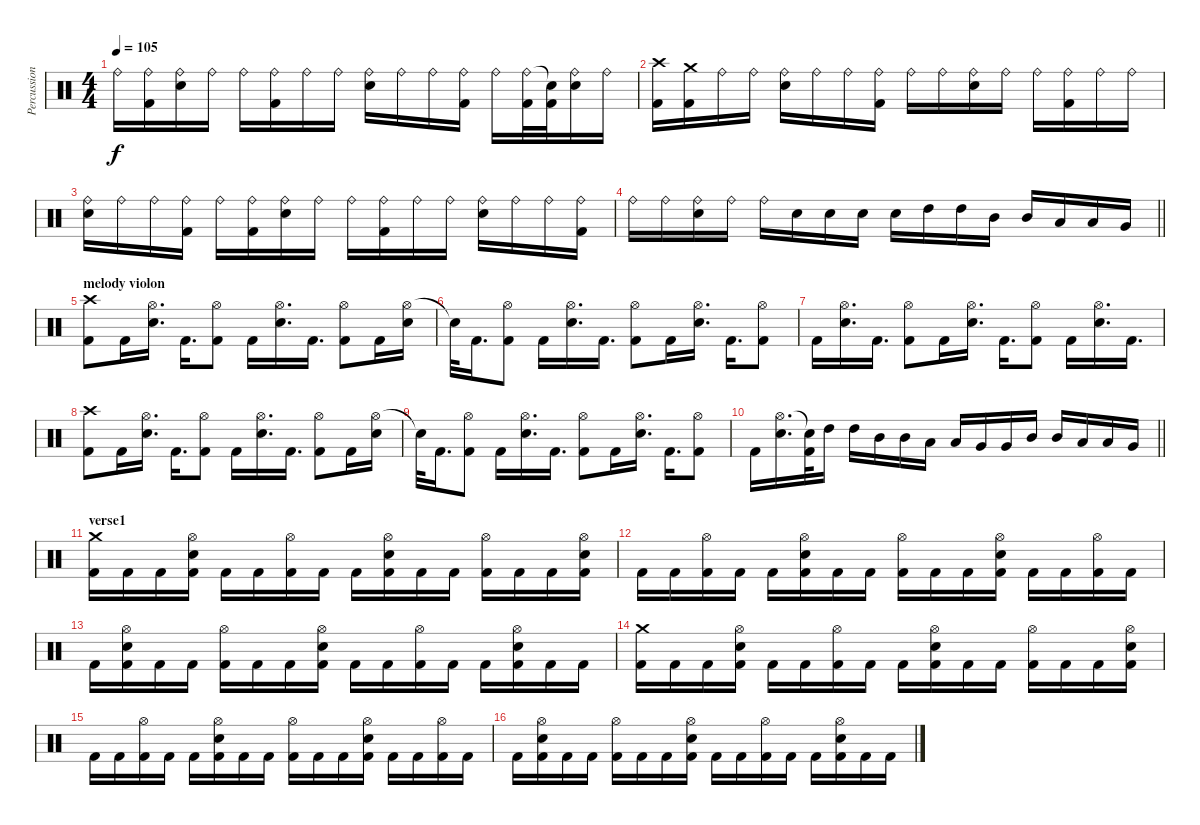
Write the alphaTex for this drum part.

\track ("Percussions" "Percussion") {instrument percussion}
\staff {score}
\articulation defaults
\ts (4 4)
\tempo 105
\clef neutral
\ks c "Ride (bell)".16{dy f}
("Ride (bell)" "Kick (hit) 2").16 ("Ride (bell)" "Snare (hit) 2").16 "Ride (bell)".16 "Ride (bell)".16 ("Ride (bell)" "Kick (hit) 2").16 "Ride (bell)".16 "Ride (bell)".16 ("Ride (bell)" "Snare (hit) 2").16 "Ride (bell)".16 "Ride (bell)".16 ("Ride (bell)" "Kick (hit) 2").16 "Ride (bell)".16 ("Ride (bell)" "Kick (hit) 2").32 ("Snare (hit)"{t} "Kick (hit) 2").32 ("Ride (bell)" "Snare (hit) 2").16 "Ride (bell)".16 |
("Crash high (hit)" "Kick (hit) 2").16 ("Crash medium (hit)" "Kick (hit) 2").16 "Ride (bell)".16 "Ride (bell)".16 ("Ride (bell)" "Snare (hit) 2").16 "Ride (bell)".16 "Ride (bell)".16 ("Ride (bell)" "Kick (hit) 2").16 "Ride (bell)".16 "Ride (bell)".16 ("Ride (bell)" "Snare (hit) 2").16 "Ride (bell)".16 "Ride (bell)".16 ("Ride (bell)" "Kick (hit) 2").16 "Ride (bell)".16 "Ride (bell)".16 |
("Ride (bell)" "Snare (hit) 2").16 "Ride (bell)".16 "Ride (bell)".16 ("Ride (bell)" "Kick (hit) 2").16 "Ride (bell)".16 ("Ride (bell)" "Kick (hit) 2").16 ("Ride (bell)" "Snare (hit) 2").16 "Ride (bell)".16 "Ride (bell)".16 ("Ride (bell)" "Kick (hit) 2").16 "Ride (bell)".16 "Ride (bell)".16 ("Ride (bell)" "Snare (hit) 2").16 "Ride (bell)".16 "Ride (bell)".16 ("Ride (bell)" "Kick (hit) 2").16 |
\barLineRight lightlight "Ride (bell)".16 "Ride (bell)".16
("Ride (bell)" "Snare (hit) 2").16 "Ride (bell)".16 "Ride (bell)".16 "Snare (hit) 2".16 "Snare (hit) 2".16 "Snare (hit) 2".16 "Snare (hit) 2".16 "High Tom (hit)".16 "High Tom (hit)".16 "Mid Tom (hit)".16 "Mid Tom (hit)".16 "Low Tom (hit)".16 "Low Tom (hit)".16 "Very Low Tom (hit)".16 |
\section ("" "melody violon")
("Crash high (hit)" "Kick (hit) 2").8 "Kick (hit) 2".16 ("Hi-Hat (open)" "Snare (hit) 2").16{d} "Kick (hit) 2".16{d} ("Hi-Hat (open)" "Kick (hit) 2").8 "Kick (hit) 2".16 ("Hi-Hat (open)" "Snare (hit) 2").16{d} "Kick (hit) 2".16{d} ("Hi-Hat (open)" "Kick (hit) 2").8 "Kick (hit) 2".16 ("Hi-Hat (open)" "Snare (hit) 2").16 |
"Snare (hit)"{t}.32 "Kick (hit) 2".16{d} ("Hi-Hat (open)" "Kick (hit) 2").8 "Kick (hit) 2".16 ("Hi-Hat (open)" "Snare (hit) 2").16{d} "Kick (hit) 2".16{d} ("Hi-Hat (open)" "Kick (hit) 2").8 "Kick (hit) 2".16 ("Hi-Hat (open)" "Snare (hit) 2").16{d} "Kick (hit) 2".16{d} ("Hi-Hat (open)" "Kick (hit) 2").8 |
"Kick (hit) 2".16 ("Hi-Hat (open)" "Snare (hit) 2").16{d} "Kick (hit) 2".16{d} ("Hi-Hat (open)" "Kick (hit) 2").8 "Kick (hit) 2".16 ("Hi-Hat (open)" "Snare (hit) 2").16{d} "Kick (hit) 2".16{d} ("Hi-Hat (open)" "Kick (hit) 2").8 "Kick (hit) 2".16 ("Hi-Hat (open)" "Snare (hit) 2").16{d} "Kick (hit) 2".16{d} |
("Crash high (hit)" "Kick (hit) 2").8 "Kick (hit) 2".16 ("Hi-Hat (open)" "Snare (hit) 2").16{d} "Kick (hit) 2".16{d} ("Hi-Hat (open)" "Kick (hit) 2").8 "Kick (hit) 2".16 ("Hi-Hat (open)" "Snare (hit) 2").16{d} "Kick (hit) 2".16{d} ("Hi-Hat (open)" "Kick (hit) 2").8 "Kick (hit) 2".16 ("Hi-Hat (open)" "Snare (hit) 2").16 |
"Snare (hit)"{t}.32 "Kick (hit) 2".16{d} ("Hi-Hat (open)" "Kick (hit) 2").8 "Kick (hit) 2".16 ("Hi-Hat (open)" "Snare (hit) 2").16{d} "Kick (hit) 2".16{d} ("Hi-Hat (open)" "Kick (hit) 2").8 "Kick (hit) 2".16 ("Hi-Hat (open)" "Snare (hit) 2").16{d} "Kick (hit) 2".16{d} ("Hi-Hat (open)" "Kick (hit) 2").8 |
\barLineRight lightlight "Kick (hit) 2".16
("Hi-Hat (open)" "Snare (hit) 2").16{d} ("Snare (hit)"{t} "Kick (hit) 2").32 "High Tom (hit)".16 "High Tom (hit)".16 "Mid Tom (hit)".16 "Mid Tom (hit)".16 "Low Tom (hit)".16 "Low Tom (hit)".16 "Very Low Tom (hit)".16 "Very Low Tom (hit)".16 "Mid Tom (hit)".16 "Mid Tom (hit)".16 "Low Tom (hit)".16 "Low Tom (hit)".16 "Very Low Tom (hit)".16 |
\section ("" "verse1")
("Crash medium (hit)" "Kick (hit) 2").16 "Kick (hit) 2".16 "Kick (hit) 2".16 ("Hi-Hat (open)" "Snare (hit) 2" "Kick (hit) 2").16 "Kick (hit) 2".16 "Kick (hit) 2".16 ("Hi-Hat (open)" "Kick (hit) 2").16 "Kick (hit) 2".16 "Kick (hit) 2".16 ("Hi-Hat (open)" "Snare (hit) 2" "Kick (hit) 2").16 "Kick (hit) 2".16 "Kick (hit) 2".16 ("Hi-Hat (open)" "Kick (hit) 2").16 "Kick (hit) 2".16 "Kick (hit) 2".16 ("Hi-Hat (open)" "Snare (hit) 2" "Kick (hit) 2").16 |
"Kick (hit) 2".16 "Kick (hit) 2".16 ("Hi-Hat (open)" "Kick (hit) 2").16 "Kick (hit) 2".16 "Kick (hit) 2".16 ("Hi-Hat (open)" "Snare (hit) 2" "Kick (hit) 2").16 "Kick (hit) 2".16 "Kick (hit) 2".16 ("Hi-Hat (open)" "Kick (hit) 2").16 "Kick (hit) 2".16 "Kick (hit) 2".16 ("Hi-Hat (open)" "Snare (hit) 2" "Kick (hit) 2").16 "Kick (hit) 2".16 "Kick (hit) 2".16 ("Hi-Hat (open)" "Kick (hit) 2").16 "Kick (hit) 2".16 |
"Kick (hit) 2".16 ("Hi-Hat (open)" "Snare (hit) 2" "Kick (hit) 2").16 "Kick (hit) 2".16 "Kick (hit) 2".16 ("Hi-Hat (open)" "Kick (hit) 2").16 "Kick (hit) 2".16 "Kick (hit) 2".16 ("Hi-Hat (open)" "Snare (hit) 2" "Kick (hit) 2").16 "Kick (hit) 2".16 "Kick (hit) 2".16 ("Hi-Hat (open)" "Kick (hit) 2").16 "Kick (hit) 2".16 "Kick (hit) 2".16 ("Hi-Hat (open)" "Snare (hit) 2" "Kick (hit) 2").16 "Kick (hit) 2".16 "Kick (hit) 2".16 |
("Crash medium (hit)" "Kick (hit) 2").16 "Kick (hit) 2".16 "Kick (hit) 2".16 ("Hi-Hat (open)" "Snare (hit) 2" "Kick (hit) 2").16 "Kick (hit) 2".16 "Kick (hit) 2".16 ("Hi-Hat (open)" "Kick (hit) 2").16 "Kick (hit) 2".16 "Kick (hit) 2".16 ("Hi-Hat (open)" "Snare (hit) 2" "Kick (hit) 2").16 "Kick (hit) 2".16 "Kick (hit) 2".16 ("Hi-Hat (open)" "Kick (hit) 2").16 "Kick (hit) 2".16 "Kick (hit) 2".16 ("Hi-Hat (open)" "Snare (hit) 2" "Kick (hit) 2").16 |
"Kick (hit) 2".16 "Kick (hit) 2".16 ("Hi-Hat (open)" "Kick (hit) 2").16 "Kick (hit) 2".16 "Kick (hit) 2".16 ("Hi-Hat (open)" "Snare (hit) 2" "Kick (hit) 2").16 "Kick (hit) 2".16 "Kick (hit) 2".16 ("Hi-Hat (open)" "Kick (hit) 2").16 "Kick (hit) 2".16 "Kick (hit) 2".16 ("Hi-Hat (open)" "Snare (hit) 2" "Kick (hit) 2").16 "Kick (hit) 2".16 "Kick (hit) 2".16 ("Hi-Hat (open)" "Kick (hit) 2").16 "Kick (hit) 2".16 |
"Kick (hit) 2".16 ("Hi-Hat (open)" "Snare (hit) 2" "Kick (hit) 2").16 "Kick (hit) 2".16 "Kick (hit) 2".16 ("Hi-Hat (open)" "Kick (hit) 2").16 "Kick (hit) 2".16 "Kick (hit) 2".16 ("Hi-Hat (open)" "Snare (hit) 2" "Kick (hit) 2").16 "Kick (hit) 2".16 "Kick (hit) 2".16 ("Hi-Hat (open)" "Kick (hit) 2").16 "Kick (hit) 2".16 "Kick (hit) 2".16 ("Hi-Hat (open)" "Snare (hit) 2" "Kick (hit) 2").16 "Kick (hit) 2".16 "Kick (hit) 2".16
